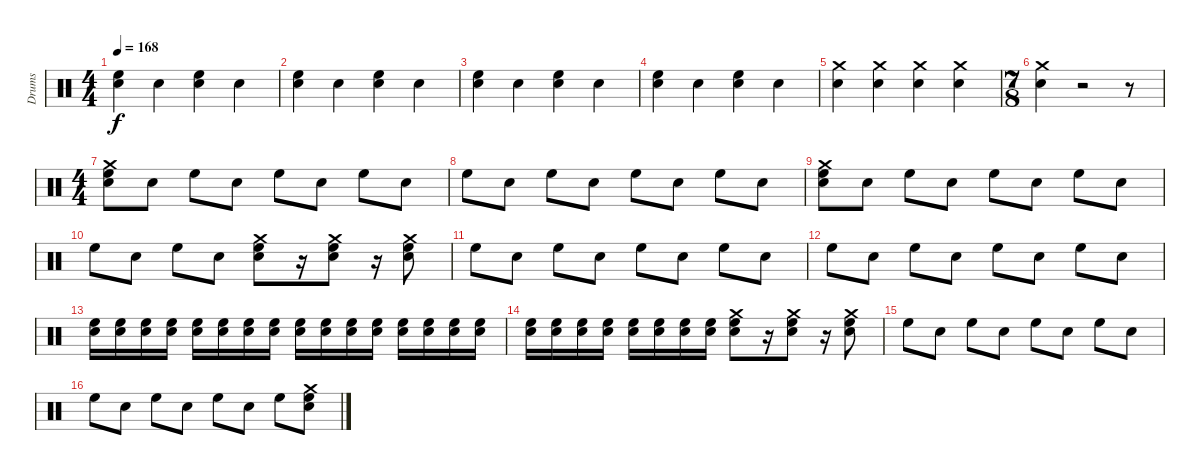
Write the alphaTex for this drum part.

\track ("Drums" "Drums") {instrument percussion}
\staff {score}
\articulation defaults
\ts (4 4)
\tempo 168
\clef neutral
\ks c
("Electric Snare (hit)" "High Floor Tom (hit)").4{dy f} "Electric Snare (hit)".4 ("Electric Snare (hit)" "High Floor Tom (hit)").4 "Electric Snare (hit)".4 |
("Electric Snare (hit)" "High Floor Tom (hit)").4 "Electric Snare (hit)".4 ("Electric Snare (hit)" "High Floor Tom (hit)").4 "Electric Snare (hit)".4 |
("Electric Snare (hit)" "High Floor Tom (hit)").4 "Electric Snare (hit)".4 ("Electric Snare (hit)" "High Floor Tom (hit)").4 "Electric Snare (hit)".4 |
("Electric Snare (hit)" "High Floor Tom (hit)").4 "Electric Snare (hit)".4 ("Electric Snare (hit)" "High Floor Tom (hit)").4 "Electric Snare (hit)".4 |
("Electric Snare (hit)" "Crash medium (hit)").4 ("Electric Snare (hit)" "Crash medium (hit)").4 ("Electric Snare (hit)" "Crash medium (hit)").4 ("Electric Snare (hit)" "Crash medium (hit)").4 |
\ts (7 8)
("Electric Snare (hit)" "Crash medium (hit)").4 r.2 r.8 |
\ts (4 4)
("Crash medium (hit)" "Electric Snare (hit)" "High Floor Tom (hit)").8 "Electric Snare (hit)".8 "High Floor Tom (hit)".8 "Electric Snare (hit)".8 "High Floor Tom (hit)".8 "Electric Snare (hit)".8 "High Floor Tom (hit)".8 "Electric Snare (hit)".8 |
"High Floor Tom (hit)".8 "Electric Snare (hit)".8 "High Floor Tom (hit)".8 "Electric Snare (hit)".8 "High Floor Tom (hit)".8 "Electric Snare (hit)".8 "High Floor Tom (hit)".8 "Electric Snare (hit)".8 |
("High Floor Tom (hit)" "Electric Snare (hit)" "Crash medium (hit)").8 "Electric Snare (hit)".8 "High Floor Tom (hit)".8 "Electric Snare (hit)".8 "High Floor Tom (hit)".8 "Electric Snare (hit)".8 "High Floor Tom (hit)".8 "Electric Snare (hit)".8 |
"High Floor Tom (hit)".8 "Electric Snare (hit)".8 "High Floor Tom (hit)".8 "Electric Snare (hit)".8 ("Electric Snare (hit)" "High Floor Tom (hit)" "Crash medium (hit)").8 r.16 ("Electric Snare (hit)" "High Floor Tom (hit)" "Crash medium (hit)").8 r.16 ("Electric Snare (hit)" "High Floor Tom (hit)" "Crash medium (hit)").8 |
"High Floor Tom (hit)".8 "Electric Snare (hit)".8 "High Floor Tom (hit)".8 "Electric Snare (hit)".8 "High Floor Tom (hit)".8 "Electric Snare (hit)".8 "High Floor Tom (hit)".8 "Electric Snare (hit)".8 |
"High Floor Tom (hit)".8 "Electric Snare (hit)".8 "High Floor Tom (hit)".8 "Electric Snare (hit)".8 "High Floor Tom (hit)".8 "Electric Snare (hit)".8 "High Floor Tom (hit)".8 "Electric Snare (hit)".8 |
("Electric Snare (hit)" "High Floor Tom (hit)").16 ("Electric Snare (hit)" "High Floor Tom (hit)").16 ("Electric Snare (hit)" "High Floor Tom (hit)").16 ("Electric Snare (hit)" "High Floor Tom (hit)").16 ("Electric Snare (hit)" "High Floor Tom (hit)").16 ("Electric Snare (hit)" "High Floor Tom (hit)").16 ("Electric Snare (hit)" "High Floor Tom (hit)").16 ("Electric Snare (hit)" "High Floor Tom (hit)").16 ("Electric Snare (hit)" "High Floor Tom (hit)").16 ("Electric Snare (hit)" "High Floor Tom (hit)").16 ("Electric Snare (hit)" "High Floor Tom (hit)").16 ("Electric Snare (hit)" "High Floor Tom (hit)").16 ("Electric Snare (hit)" "High Floor Tom (hit)").16 ("Electric Snare (hit)" "High Floor Tom (hit)").16 ("Electric Snare (hit)" "High Floor Tom (hit)").16 ("Electric Snare (hit)" "High Floor Tom (hit)").16 |
("Electric Snare (hit)" "High Floor Tom (hit)").16 ("Electric Snare (hit)" "High Floor Tom (hit)").16 ("Electric Snare (hit)" "High Floor Tom (hit)").16 ("Electric Snare (hit)" "High Floor Tom (hit)").16 ("Electric Snare (hit)" "High Floor Tom (hit)").16 ("Electric Snare (hit)" "High Floor Tom (hit)").16 ("Electric Snare (hit)" "High Floor Tom (hit)").16 ("Electric Snare (hit)" "High Floor Tom (hit)").16 ("Electric Snare (hit)" "High Floor Tom (hit)" "Crash medium (hit)").8 r.16 ("Electric Snare (hit)" "High Floor Tom (hit)" "Crash medium (hit)").8 r.16 ("Electric Snare (hit)" "High Floor Tom (hit)" "Crash medium (hit)").8 |
"High Floor Tom (hit)".8 "Electric Snare (hit)".8 "High Floor Tom (hit)".8 "Electric Snare (hit)".8 "High Floor Tom (hit)".8 "Electric Snare (hit)".8 "High Floor Tom (hit)".8 "Electric Snare (hit)".8 |
"High Floor Tom (hit)".8 "Electric Snare (hit)".8 "High Floor Tom (hit)".8 "Electric Snare (hit)".8 "High Floor Tom (hit)".8 "Electric Snare (hit)".8 "High Floor Tom (hit)".8 ("Electric Snare (hit)" "Crash medium (hit)" "High Floor Tom (hit)").8
